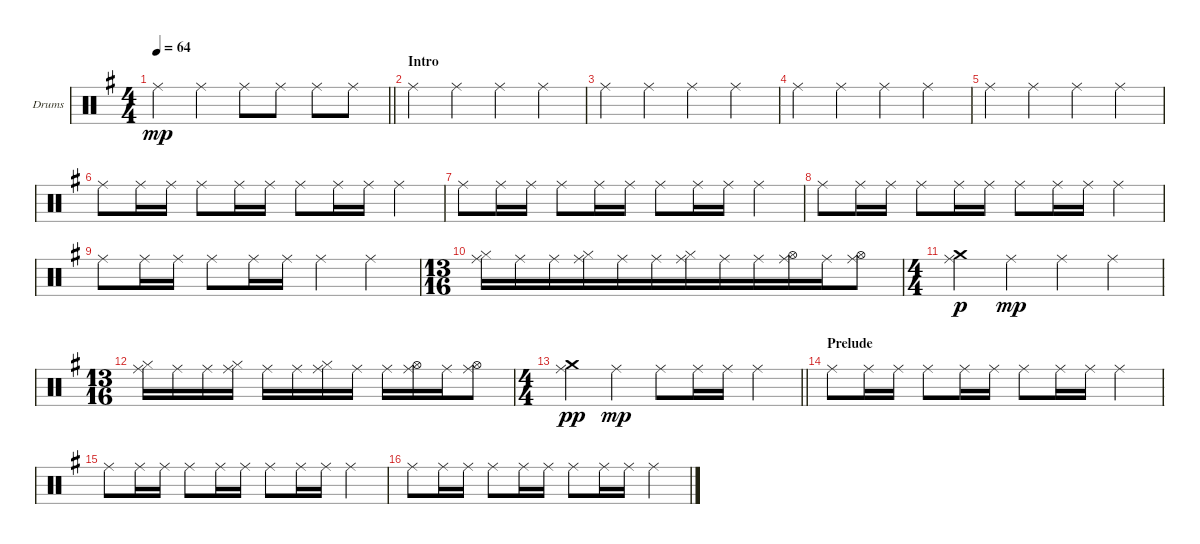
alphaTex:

\bracketExtendMode groupsimilarinstruments
\firstSystemTrackNameOrientation horizontal
\otherSystemsTrackNameOrientation horizontal
\track ("Барабаны" "Drums") {instrument percussion}
\staff {score}
\articulation defaults
\ts (4 4)
\beaming (8 2 2 2 2)
\tempo 64
\clef neutral
\barLineRight lightlight
\ks eminor "Ride (middle)".4{dy mp} "Ride (middle)".4 "Ride (middle)".8 "Ride (middle)".8 "Ride (middle)".8 "Ride (middle)".8
|
\section ("" "Intro")
"Ride (middle)".4 "Ride (middle)".4 "Ride (middle)".4 "Ride (middle)".4 |
"Ride (middle)".4 "Ride (middle)".4 "Ride (middle)".4 "Ride (middle)".4 |
"Ride (middle)".4 "Ride (middle)".4 "Ride (middle)".4 "Ride (middle)".4 |
"Ride (middle)".4 "Ride (middle)".4 "Ride (middle)".4 "Ride (middle)".4 |
"Ride (middle)".8 "Ride (middle)".16 "Ride (middle)".16 "Ride (middle)".8 "Ride (middle)".16 "Ride (middle)".16 "Ride (middle)".8 "Ride (middle)".16 "Ride (middle)".16 "Ride (middle)".4 |
"Ride (middle)".8 "Ride (middle)".16 "Ride (middle)".16 "Ride (middle)".8 "Ride (middle)".16 "Ride (middle)".16 "Ride (middle)".8 "Ride (middle)".16 "Ride (middle)".16 "Ride (middle)".4 |
"Ride (middle)".8 "Ride (middle)".16 "Ride (middle)".16 "Ride (middle)".8 "Ride (middle)".16 "Ride (middle)".16 "Ride (middle)".8 "Ride (middle)".16 "Ride (middle)".16 "Ride (middle)".4 |
"Ride (middle)".8 "Ride (middle)".16 "Ride (middle)".16 "Ride (middle)".8 "Ride (middle)".16 "Ride (middle)".16 "Ride (middle)".4 "Ride (middle)".4 |
\ts (13 16)
\beaming (8 6)
("Hi-Hat (closed)" "Ride (middle)").16 "Ride (middle)".16 "Ride (middle)".16 ("Hi-Hat (closed)" "Ride (middle)").16 "Ride (middle)".16 "Ride (middle)".16 ("Hi-Hat (closed)" "Ride (middle)").16 "Ride (middle)".16 "Ride (middle)".16 ("Ride (middle)" "Hi-Hat (open)").16 "Ride (middle)".16 ("Ride (middle)" "Hi-Hat (open)").8 |
\ts (4 4)
\beaming (8 2 2 2 2)
("Crash medium (hit)" "Ride (middle)").4{dy p} "Ride (middle)".4{dy mp} "Ride (middle)".4 "Ride (middle)".4 |
\ts (13 16)
\beaming (8 2 2 2 2)
("Hi-Hat (closed)" "Ride (middle)").16 "Ride (middle)".16 "Ride (middle)".16 ("Hi-Hat (closed)" "Ride (middle)").16 "Ride (middle)".16 "Ride (middle)".16 ("Hi-Hat (closed)" "Ride (middle)").16 "Ride (middle)".16 "Ride (middle)".16 ("Ride (middle)" "Hi-Hat (open)").16 "Ride (middle)".16 ("Ride (middle)" "Hi-Hat (open)").8 |
\ts (4 4)
\beaming (8 2 2 2 2)
\barLineRight lightlight
("Crash medium (hit)" "Ride (middle)").4{dy pp} "Ride (middle)".4{dy mp} "Ride (middle)".8 "Ride (middle)".16 "Ride (middle)".16 "Ride (middle)".4 |
\section ("" "Prelude")
"Ride (middle)".8 "Ride (middle)".16 "Ride (middle)".16 "Ride (middle)".8 "Ride (middle)".16 "Ride (middle)".16 "Ride (middle)".8 "Ride (middle)".16 "Ride (middle)".16 "Ride (middle)".4 |
"Ride (middle)".8 "Ride (middle)".16 "Ride (middle)".16 "Ride (middle)".8 "Ride (middle)".16 "Ride (middle)".16 "Ride (middle)".8 "Ride (middle)".16 "Ride (middle)".16 "Ride (middle)".4 |
"Ride (middle)".8 "Ride (middle)".16 "Ride (middle)".16 "Ride (middle)".8 "Ride (middle)".16 "Ride (middle)".16 "Ride (middle)".8 "Ride (middle)".16 "Ride (middle)".16 "Ride (middle)".4
